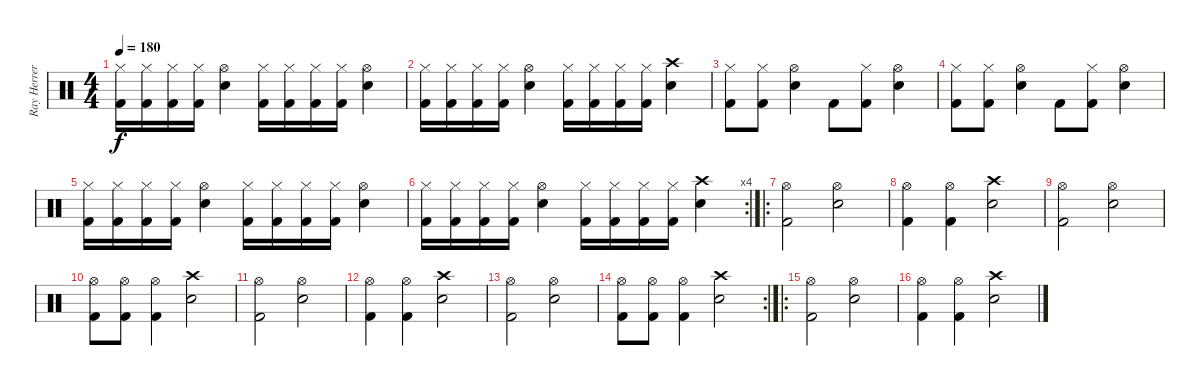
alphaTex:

\track ("Ray Herrera" "Ray Herrer") {instrument percussion}
\staff {score}
\articulation defaults
\ts (4 4)
\tempo 180
\clef neutral
\ks c
("Hi-Hat (closed)" "Kick (hit) 2").16{dy f} ("Hi-Hat (closed)" "Kick (hit) 2").16 ("Hi-Hat (closed)" "Kick (hit) 2").16 ("Hi-Hat (closed)" "Kick (hit) 2").16 ("Hi-Hat (open)" "Electric Snare (hit)").4 ("Hi-Hat (closed)" "Kick (hit) 2").16 ("Hi-Hat (closed)" "Kick (hit) 2").16 ("Hi-Hat (closed)" "Kick (hit) 2").16 ("Hi-Hat (closed)" "Kick (hit) 2").16 ("Hi-Hat (open)" "Electric Snare (hit)").4 |
("Hi-Hat (closed)" "Kick (hit) 2").16 ("Hi-Hat (closed)" "Kick (hit) 2").16 ("Hi-Hat (closed)" "Kick (hit) 2").16 ("Hi-Hat (closed)" "Kick (hit) 2").16 ("Hi-Hat (open)" "Electric Snare (hit)").4 ("Hi-Hat (closed)" "Kick (hit) 2").16 ("Hi-Hat (closed)" "Kick (hit) 2").16 ("Hi-Hat (closed)" "Kick (hit) 2").16 ("Hi-Hat (closed)" "Kick (hit) 2").16 ("Crash high (hit)" "Electric Snare (hit)").4 |
("Hi-Hat (closed)" "Kick (hit) 2").8 ("Hi-Hat (closed)" "Kick (hit) 2").8 ("Hi-Hat (open)" "Electric Snare (hit)").4 "Kick (hit) 2".8 ("Hi-Hat (closed)" "Kick (hit) 2").8 ("Hi-Hat (open)" "Electric Snare (hit)").4 |
("Hi-Hat (closed)" "Kick (hit) 2").8 ("Hi-Hat (closed)" "Kick (hit) 2").8 ("Hi-Hat (open)" "Electric Snare (hit)").4 "Kick (hit) 2".8 ("Hi-Hat (closed)" "Kick (hit) 2").8 ("Hi-Hat (open)" "Electric Snare (hit)").4 |
("Hi-Hat (closed)" "Kick (hit) 2").16 ("Hi-Hat (closed)" "Kick (hit) 2").16 ("Hi-Hat (closed)" "Kick (hit) 2").16 ("Hi-Hat (closed)" "Kick (hit) 2").16 ("Hi-Hat (open)" "Electric Snare (hit)").4 ("Hi-Hat (closed)" "Kick (hit) 2").16 ("Hi-Hat (closed)" "Kick (hit) 2").16 ("Hi-Hat (closed)" "Kick (hit) 2").16 ("Hi-Hat (closed)" "Kick (hit) 2").16 ("Hi-Hat (open)" "Electric Snare (hit)").4 |
\rc 4
("Hi-Hat (closed)" "Kick (hit) 2").16 ("Hi-Hat (closed)" "Kick (hit) 2").16 ("Hi-Hat (closed)" "Kick (hit) 2").16 ("Hi-Hat (closed)" "Kick (hit) 2").16 ("Hi-Hat (open)" "Electric Snare (hit)").4 ("Hi-Hat (closed)" "Kick (hit) 2").16 ("Hi-Hat (closed)" "Kick (hit) 2").16 ("Hi-Hat (closed)" "Kick (hit) 2").16 ("Hi-Hat (closed)" "Kick (hit) 2").16 ("Crash high (hit)" "Electric Snare (hit)").4 |
\ro
("Hi-Hat (open)" "Kick (hit) 2").2 ("Hi-Hat (open)" "Electric Snare (hit)").2 |
("Hi-Hat (open)" "Kick (hit) 2").4 ("Hi-Hat (open)" "Kick (hit) 2").4 ("Crash high (hit)" "Electric Snare (hit)").2 |
("Hi-Hat (open)" "Kick (hit) 2").2 ("Hi-Hat (open)" "Electric Snare (hit)").2 |
("Hi-Hat (open)" "Kick (hit) 2").8 ("Hi-Hat (open)" "Kick (hit) 2").8 ("Hi-Hat (open)" "Kick (hit) 2").4 ("Crash high (hit)" "Electric Snare (hit)").2 |
("Hi-Hat (open)" "Kick (hit) 2").2 ("Hi-Hat (open)" "Electric Snare (hit)").2 |
("Hi-Hat (open)" "Kick (hit) 2").4 ("Hi-Hat (open)" "Kick (hit) 2").4 ("Crash high (hit)" "Electric Snare (hit)").2 |
("Hi-Hat (open)" "Kick (hit) 2").2 ("Hi-Hat (open)" "Electric Snare (hit)").2 |
\rc 2
("Hi-Hat (open)" "Kick (hit) 2").8 ("Hi-Hat (open)" "Kick (hit) 2").8 ("Hi-Hat (open)" "Kick (hit) 2").4 ("Crash high (hit)" "Electric Snare (hit)").2 |
\ro
("Hi-Hat (open)" "Kick (hit) 2").2 ("Hi-Hat (open)" "Electric Snare (hit)").2 |
("Hi-Hat (open)" "Kick (hit) 2").4 ("Hi-Hat (open)" "Kick (hit) 2").4 ("Crash high (hit)" "Electric Snare (hit)").2
